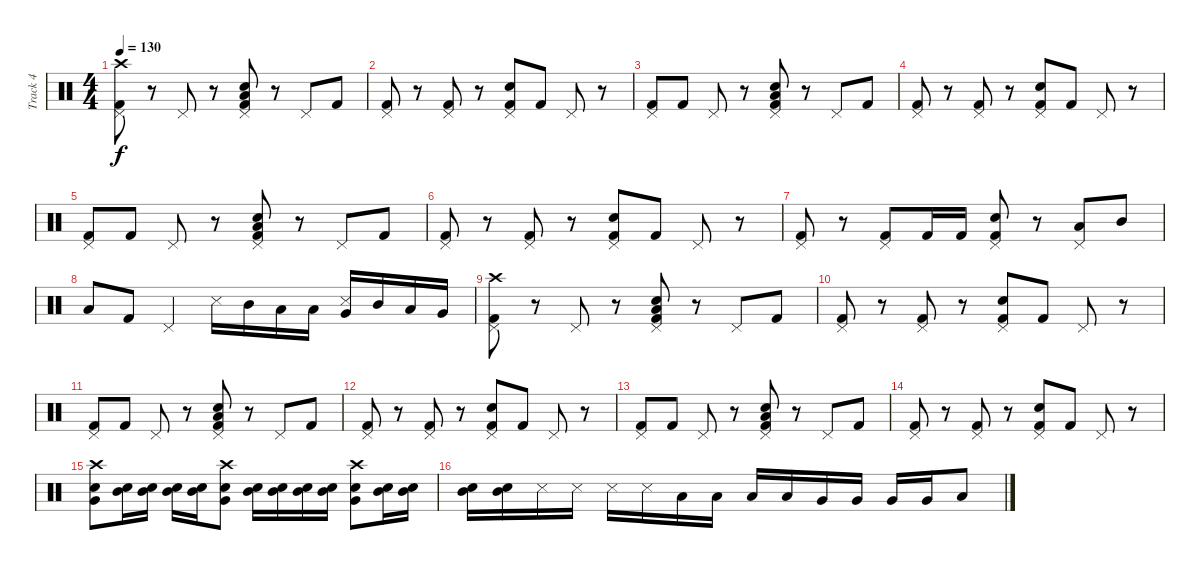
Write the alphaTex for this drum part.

\track ("Track 4" "Track 4") {instrument percussion}
\staff {score}
\articulation defaults
\ts (4 4)
\tempo 130
\clef neutral
\ks c
("Kick (hit) 2" "Pedal Hi-Hat (hit)" "Crash high (hit)").8{dy f} r.8 "Pedal Hi-Hat (hit)".8 r.8 ("Low Tom (hit)" "Snare (hit) 2" "Kick (hit) 2" "Pedal Hi-Hat (hit)").8 r.8 "Pedal Hi-Hat (hit)".8 "Kick (hit) 2".8 |
("Kick (hit) 2" "Pedal Hi-Hat (hit)").8 r.8 ("Pedal Hi-Hat (hit)" "Kick (hit) 2").8 r.8 ("Pedal Hi-Hat (hit)" "Kick (hit) 2" "Snare (hit) 2").8 "Kick (hit) 2".8 "Pedal Hi-Hat (hit)".8 r.8 |
("Kick (hit) 2" "Pedal Hi-Hat (hit)").8 "Kick (hit) 2".8 "Pedal Hi-Hat (hit)".8 r.8 ("Low Tom (hit)" "Snare (hit) 2" "Kick (hit) 2" "Pedal Hi-Hat (hit)").8 r.8 "Pedal Hi-Hat (hit)".8 "Kick (hit) 2".8 |
("Kick (hit) 2" "Pedal Hi-Hat (hit)").8 r.8 ("Pedal Hi-Hat (hit)" "Kick (hit) 2").8 r.8 ("Pedal Hi-Hat (hit)" "Kick (hit) 2" "Snare (hit) 2").8 "Kick (hit) 2".8 "Pedal Hi-Hat (hit)".8 r.8 |
("Kick (hit) 2" "Pedal Hi-Hat (hit)").8 "Kick (hit) 2".8 "Pedal Hi-Hat (hit)".8 r.8 ("Low Tom (hit)" "Snare (hit) 2" "Kick (hit) 2" "Pedal Hi-Hat (hit)").8 r.8 "Pedal Hi-Hat (hit)".8 "Kick (hit) 2".8 |
("Kick (hit) 2" "Pedal Hi-Hat (hit)").8 r.8 ("Pedal Hi-Hat (hit)" "Kick (hit) 2").8 r.8 ("Pedal Hi-Hat (hit)" "Kick (hit) 2" "Snare (hit) 2").8 "Kick (hit) 2".8 "Pedal Hi-Hat (hit)".8 r.8 |
("Kick (hit) 2" "Pedal Hi-Hat (hit)").8 r.8 ("Pedal Hi-Hat (hit)" "Kick (hit) 2").8 "Kick (hit) 2".16 "Kick (hit) 2".16 ("Pedal Hi-Hat (hit)" "Kick (hit) 2" "Electric Snare (hit)").8 r.8 ("Low Tom (hit)" "Pedal Hi-Hat (hit)").8 "Mid Tom (hit)".8 |
"Low Tom (hit)".8 "Kick (hit) 2".8 "Pedal Hi-Hat (hit)".4 "Snare (side stick) 3".16 "Mid Tom (hit)".16 "Low Tom (hit)".16 "Low Floor Tom (hit)".16 ("Very Low Tom (hit)" "Snare (side stick) 3").16 "Mid Tom (hit)".16 "Low Tom (hit)".16 "Very Low Tom (hit)".16 |
("Kick (hit) 2" "Pedal Hi-Hat (hit)" "Crash high (hit)").8 r.8 "Pedal Hi-Hat (hit)".8 r.8 ("Low Tom (hit)" "Snare (hit) 2" "Kick (hit) 2" "Pedal Hi-Hat (hit)").8 r.8 "Pedal Hi-Hat (hit)".8 "Kick (hit) 2".8 |
("Kick (hit) 2" "Pedal Hi-Hat (hit)").8 r.8 ("Pedal Hi-Hat (hit)" "Kick (hit) 2").8 r.8 ("Pedal Hi-Hat (hit)" "Kick (hit) 2" "Snare (hit) 2").8 "Kick (hit) 2".8 "Pedal Hi-Hat (hit)".8 r.8 |
("Kick (hit) 2" "Pedal Hi-Hat (hit)").8 "Kick (hit) 2".8 "Pedal Hi-Hat (hit)".8 r.8 ("Low Tom (hit)" "Snare (hit) 2" "Kick (hit) 2" "Pedal Hi-Hat (hit)").8 r.8 "Pedal Hi-Hat (hit)".8 "Kick (hit) 2".8 |
("Kick (hit) 2" "Pedal Hi-Hat (hit)").8 r.8 ("Pedal Hi-Hat (hit)" "Kick (hit) 2").8 r.8 ("Pedal Hi-Hat (hit)" "Kick (hit) 2" "Snare (hit) 2").8 "Kick (hit) 2".8 "Pedal Hi-Hat (hit)".8 r.8 |
("Kick (hit) 2" "Pedal Hi-Hat (hit)").8 "Kick (hit) 2".8 "Pedal Hi-Hat (hit)".8 r.8 ("Low Tom (hit)" "Snare (hit) 2" "Kick (hit) 2" "Pedal Hi-Hat (hit)").8 r.8 "Pedal Hi-Hat (hit)".8 "Kick (hit) 2".8 |
("Kick (hit) 2" "Pedal Hi-Hat (hit)").8 r.8 ("Pedal Hi-Hat (hit)" "Kick (hit) 2").8 r.8 ("Pedal Hi-Hat (hit)" "Kick (hit) 2" "Snare (hit) 2").8 "Kick (hit) 2".8 "Pedal Hi-Hat (hit)".8 r.8 |
("Snare (hit) 2" "Very Low Tom (hit)" "Crash high (hit)").8 ("Electric Snare (hit)" "Mid Tom (hit)").16 ("Electric Snare (hit)" "Mid Tom (hit)").16 ("Electric Snare (hit)" "Mid Tom (hit)").16 ("Electric Snare (hit)" "Mid Tom (hit)").16 ("Electric Snare (hit)" "Very Low Tom (hit)" "Crash high (hit)").8 ("Electric Snare (hit)" "Mid Tom (hit)").16 ("Electric Snare (hit)" "Mid Tom (hit)").16 ("Electric Snare (hit)" "Mid Tom (hit)").16 ("Electric Snare (hit)" "Mid Tom (hit)").16 ("Electric Snare (hit)" "Very Low Tom (hit)" "Crash high (hit)").8 ("Electric Snare (hit)" "Mid Tom (hit)").16 ("Electric Snare (hit)" "Mid Tom (hit)").16 |
("Electric Snare (hit)" "Mid Tom (hit)").16 ("Electric Snare (hit)" "Mid Tom (hit)").16 "Snare (side stick) 3".16 "Snare (side stick) 3".16 "Snare (side stick) 3".16 "Snare (side stick) 3".16 "Low Tom (hit)".16 "Low Tom (hit)".16 "Low Tom (hit)".16 "Low Tom (hit)".16 "Very Low Tom (hit)".16 "Very Low Tom (hit)".16 "Very Low Tom (hit)".16 "Very Low Tom (hit)".16 "Low Floor Tom (hit)".8
